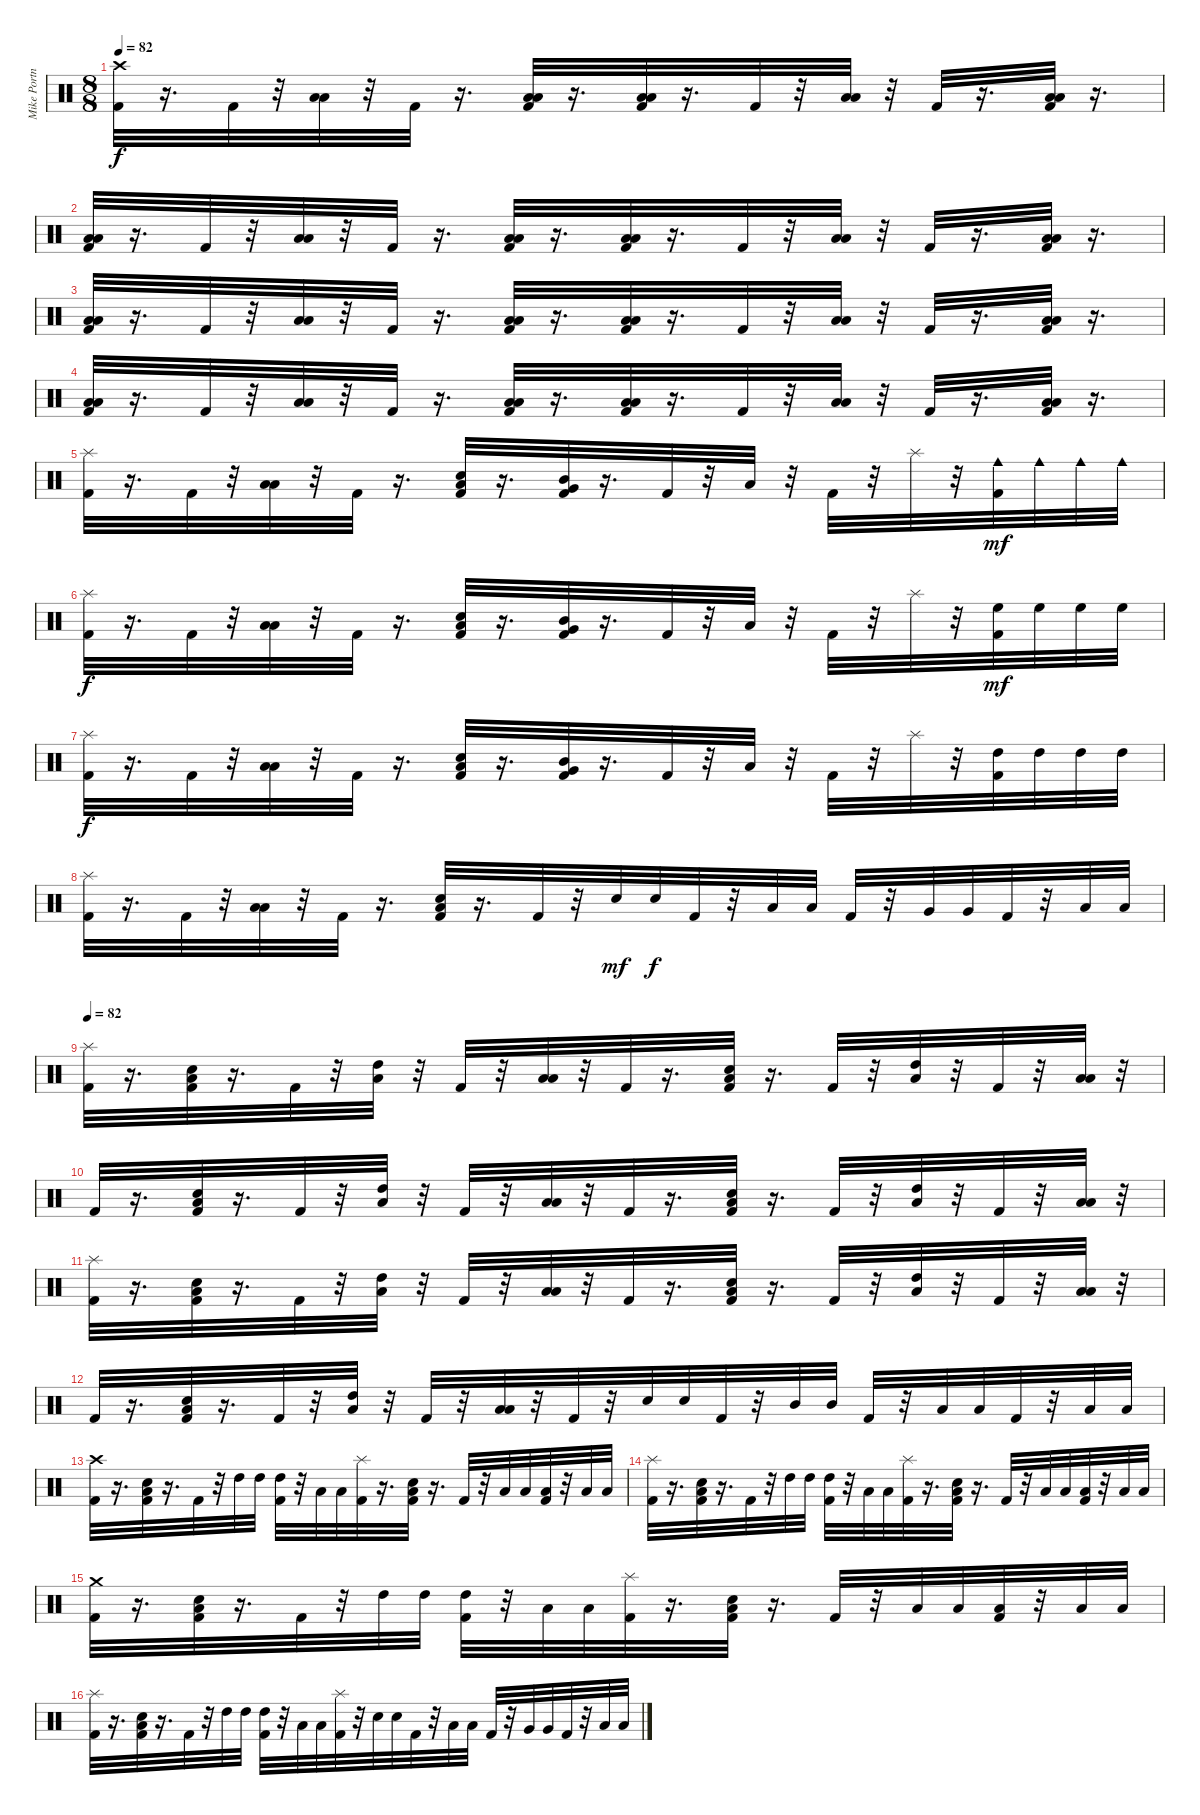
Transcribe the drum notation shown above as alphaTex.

\track ("Mike Portnoy" "Mike Portn") {instrument percussion}
\staff {score}
\articulation defaults
\ts (8 8)
\tempo 82
\clef neutral
\ks c
("Crash high (hit)" "Kick (hit) 2").32{dy f} r.16{d} "Kick (hit) 2".32 r.32 ("Low Tom (hit)" "Low Floor Tom (hit)").32 r.32 "Kick (hit) 2".32 r.16{d} ("Kick (hit) 2" "Low Floor Tom (hit)" "Low Tom (hit)").32 r.16{d} ("Low Tom (hit)" "Low Floor Tom (hit)" "Kick (hit) 2").32 r.16{d} "Kick (hit) 2".32 r.32 ("Low Floor Tom (hit)" "Low Tom (hit)").32 r.32 "Kick (hit) 2".32 r.16{d} ("Kick (hit) 2" "Low Tom (hit)" "Low Floor Tom (hit)").32 r.16{d} |
("Low Tom (hit)" "Low Floor Tom (hit)" "Kick (hit) 2").32 r.16{d} "Kick (hit) 2".32 r.32 ("Low Tom (hit)" "Low Floor Tom (hit)").32 r.32 "Kick (hit) 2".32 r.16{d} ("Kick (hit) 2" "Low Floor Tom (hit)" "Low Tom (hit)").32 r.16{d} ("Low Tom (hit)" "Low Floor Tom (hit)" "Kick (hit) 2").32 r.16{d} "Kick (hit) 2".32 r.32 ("Low Floor Tom (hit)" "Low Tom (hit)").32 r.32 "Kick (hit) 2".32 r.16{d} ("Kick (hit) 2" "Low Tom (hit)" "Low Floor Tom (hit)").32 r.16{d} |
("Low Tom (hit)" "Low Floor Tom (hit)" "Kick (hit) 2").32 r.16{d} "Kick (hit) 2".32 r.32 ("Low Tom (hit)" "Low Floor Tom (hit)").32 r.32 "Kick (hit) 2".32 r.16{d} ("Kick (hit) 2" "Low Floor Tom (hit)" "Low Tom (hit)").32 r.16{d} ("Low Tom (hit)" "Low Floor Tom (hit)" "Kick (hit) 2").32 r.16{d} "Kick (hit) 2".32 r.32 ("Low Floor Tom (hit)" "Low Tom (hit)").32 r.32 "Kick (hit) 2".32 r.16{d} ("Kick (hit) 2" "Low Tom (hit)" "Low Floor Tom (hit)").32 r.16{d} |
("Low Tom (hit)" "Low Floor Tom (hit)" "Kick (hit) 2").32 r.16{d} "Kick (hit) 2".32 r.32 ("Low Tom (hit)" "Low Floor Tom (hit)").32 r.32 "Kick (hit) 2".32 r.16{d} ("Kick (hit) 2" "Low Floor Tom (hit)" "Low Tom (hit)").32 r.16{d} ("Low Tom (hit)" "Low Floor Tom (hit)" "Kick (hit) 2").32 r.16{d} "Kick (hit) 2".32 r.32 ("Low Floor Tom (hit)" "Low Tom (hit)").32 r.32 "Kick (hit) 2".32 r.16{d} ("Kick (hit) 2" "Low Tom (hit)" "Low Floor Tom (hit)").32 r.16{d} |
("Splash (hit)" "Kick (hit) 2").32 r.16{d} "Kick (hit) 2".32 r.32 ("Low Tom (hit)" "Low Floor Tom (hit)").32 r.32 "Kick (hit) 2".32 r.16{d} ("Low Floor Tom (hit)" "Kick (hit) 2" "Snare (hit) 2").32 r.16{d} ("Mid Tom (hit)" "Very Low Tom (hit)" "Kick (hit) 2").32 r.16{d} "Kick (hit) 2".32 r.32 "Low Floor Tom (hit)".32 r.32 "Kick (hit) 2".32 r.32 "Splash (hit)".32 r.32 ("Cowbell medium (hit)" "Kick (hit) 2").32{dy mf} "Cowbell medium (hit)".32 "Cowbell medium (hit)".32 "Cowbell medium (hit)".32 |
("Splash (hit)" "Kick (hit) 2").32{dy f} r.16{d} "Kick (hit) 2".32 r.32 ("Low Tom (hit)" "Low Floor Tom (hit)").32 r.32 "Kick (hit) 2".32 r.16{d} ("Low Floor Tom (hit)" "Kick (hit) 2" "Snare (hit) 2").32 r.16{d} ("Mid Tom (hit)" "Very Low Tom (hit)" "Kick (hit) 2").32 r.16{d} "Kick (hit) 2".32 r.32 "Low Floor Tom (hit)".32 r.32 "Kick (hit) 2".32 r.32 "Splash (hit)".32 r.32 ("High Floor Tom (hit)" "Kick (hit) 2").32{dy mf} "High Floor Tom (hit)".32 "High Floor Tom (hit)".32 "High Floor Tom (hit)".32 |
("Kick (hit) 2" "Splash (hit)").32{dy f} r.16{d} "Kick (hit) 2".32 r.32 ("Low Tom (hit)" "Low Floor Tom (hit)").32 r.32 "Kick (hit) 2".32 r.16{d} ("Low Floor Tom (hit)" "Kick (hit) 2" "Snare (hit) 2").32 r.16{d} ("Mid Tom (hit)" "Very Low Tom (hit)" "Kick (hit) 2").32 r.16{d} "Kick (hit) 2".32 r.32 "Low Floor Tom (hit)".32 r.32 "Kick (hit) 2".32 r.32 "Splash (hit)".32 r.32 ("High Tom (hit)" "Kick (hit) 2").32 "High Tom (hit)".32 "High Tom (hit)".32 "High Tom (hit)".32 |
("Splash (hit)" "Kick (hit) 2").32 r.16{d} "Kick (hit) 2".32 r.32 ("Low Tom (hit)" "Low Floor Tom (hit)").32 r.32 "Kick (hit) 2".32 r.16{d} ("Low Floor Tom (hit)" "Kick (hit) 2" "Snare (hit) 2").32 r.16{d} "Kick (hit) 2".32 r.32 "Snare (hit) 2".32{dy mf} "Snare (hit) 2".32{dy f} "Kick (hit) 2".32 r.32 "Low Tom (hit)".32 "Low Tom (hit)".32 "Kick (hit) 2".32 r.32 "Very Low Tom (hit)".32 "Very Low Tom (hit)".32 "Kick (hit) 2".32 r.32 "Low Floor Tom (hit)".32 "Low Floor Tom (hit)".32 |
\tempo 82
("Kick (hit) 2" "Splash (hit)").32 r.16{d} ("Low Floor Tom (hit)" "Snare (hit) 2" "Kick (hit) 2").32 r.16{d} "Kick (hit) 2".32 r.32 ("Low Tom (hit)" "High Tom (hit)").32 r.32 "Kick (hit) 2".32 r.32 ("Low Floor Tom (hit)" "Low Tom (hit)").32 r.32 "Kick (hit) 2".32 r.16{d} ("Low Floor Tom (hit)" "Kick (hit) 2" "Snare (hit) 2").32 r.16{d} "Kick (hit) 2".32 r.32 ("Low Tom (hit)" "High Tom (hit)").32 r.32 "Kick (hit) 2".32 r.32 ("Low Tom (hit)" "Low Floor Tom (hit)").32 r.32 |
"Kick (hit) 2".32 r.16{d} ("Low Floor Tom (hit)" "Snare (hit) 2" "Kick (hit) 2").32 r.16{d} "Kick (hit) 2".32 r.32 ("Low Tom (hit)" "High Tom (hit)").32 r.32 "Kick (hit) 2".32 r.32 ("Low Floor Tom (hit)" "Low Tom (hit)").32 r.32 "Kick (hit) 2".32 r.16{d} ("Low Floor Tom (hit)" "Kick (hit) 2" "Snare (hit) 2").32 r.16{d} "Kick (hit) 2".32 r.32 ("Low Tom (hit)" "High Tom (hit)").32 r.32 "Kick (hit) 2".32 r.32 ("Low Tom (hit)" "Low Floor Tom (hit)").32 r.32 |
("Kick (hit) 2" "Splash (hit)").32 r.16{d} ("Low Floor Tom (hit)" "Snare (hit) 2" "Kick (hit) 2").32 r.16{d} "Kick (hit) 2".32 r.32 ("Low Tom (hit)" "High Tom (hit)").32 r.32 "Kick (hit) 2".32 r.32 ("Low Floor Tom (hit)" "Low Tom (hit)").32 r.32 "Kick (hit) 2".32 r.16{d} ("Low Floor Tom (hit)" "Kick (hit) 2" "Snare (hit) 2").32 r.16{d} "Kick (hit) 2".32 r.32 ("Low Tom (hit)" "High Tom (hit)").32 r.32 "Kick (hit) 2".32 r.32 ("Low Tom (hit)" "Low Floor Tom (hit)").32 r.32 |
"Kick (hit) 2".32 r.16{d} ("Low Floor Tom (hit)" "Snare (hit) 2" "Kick (hit) 2").32 r.16{d} "Kick (hit) 2".32 r.32 ("Low Tom (hit)" "High Tom (hit)").32 r.32 "Kick (hit) 2".32 r.32 ("Low Floor Tom (hit)" "Low Tom (hit)").32 r.32 "Kick (hit) 2".32 r.32 "Snare (hit) 2".32 "Snare (hit) 2".32 "Kick (hit) 2".32 r.32 "Mid Tom (hit)".32 "Mid Tom (hit)".32 "Kick (hit) 2".32 r.32 "Low Tom (hit)".32 "Low Tom (hit)".32 "Kick (hit) 2".32 r.32 "Low Floor Tom (hit)".32 "Low Floor Tom (hit)".32 |
("Kick (hit) 2" "Crash high (hit)").32 r.16{d} ("Low Floor Tom (hit)" "Snare (hit) 2" "Kick (hit) 2").32 r.16{d} "Kick (hit) 2".32 r.32 "High Tom (hit)".32 "High Tom (hit)".32 ("High Tom (hit)" "Kick (hit) 2").32 r.32 "Low Tom (hit)".32 "Low Tom (hit)".32 ("Splash (hit)" "Kick (hit) 2").32 r.16{d} ("Low Floor Tom (hit)" "Kick (hit) 2" "Snare (hit) 2").32 r.16{d} "Kick (hit) 2".32 r.32 "Low Tom (hit)".32 "Low Tom (hit)".32 ("Low Tom (hit)" "Kick (hit) 2").32 r.32 "Low Floor Tom (hit)".32 "Low Floor Tom (hit)".32 |
("Kick (hit) 2" "Splash (hit)").32 r.16{d} ("Low Floor Tom (hit)" "Snare (hit) 2" "Kick (hit) 2").32 r.16{d} "Kick (hit) 2".32 r.32 "High Tom (hit)".32 "High Tom (hit)".32 ("High Tom (hit)" "Kick (hit) 2").32 r.32 "Low Tom (hit)".32 "Low Tom (hit)".32 ("Splash (hit)" "Kick (hit) 2").32 r.16{d} ("Low Floor Tom (hit)" "Kick (hit) 2" "Snare (hit) 2").32 r.16{d} "Kick (hit) 2".32 r.32 "Low Tom (hit)".32 "Low Tom (hit)".32 ("Low Tom (hit)" "Kick (hit) 2").32 r.32 "Low Floor Tom (hit)".32 "Low Floor Tom (hit)".32 |
("Kick (hit) 2" "Crash medium (hit)").32 r.16{d} ("Low Floor Tom (hit)" "Snare (hit) 2" "Kick (hit) 2").32 r.16{d} "Kick (hit) 2".32 r.32 "High Tom (hit)".32 "High Tom (hit)".32 ("High Tom (hit)" "Kick (hit) 2").32 r.32 "Low Tom (hit)".32 "Low Tom (hit)".32 ("Splash (hit)" "Kick (hit) 2").32 r.16{d} ("Low Floor Tom (hit)" "Kick (hit) 2" "Snare (hit) 2").32 r.16{d} "Kick (hit) 2".32 r.32 "Low Tom (hit)".32 "Low Tom (hit)".32 ("Low Tom (hit)" "Kick (hit) 2").32 r.32 "Low Floor Tom (hit)".32 "Low Floor Tom (hit)".32 |
("Kick (hit) 2" "Splash (hit)").32 r.16{d} ("Low Floor Tom (hit)" "Snare (hit) 2" "Kick (hit) 2").32 r.16{d} "Kick (hit) 2".32 r.32 "High Tom (hit)".32 "High Tom (hit)".32 ("High Tom (hit)" "Kick (hit) 2").32 r.32 "Low Tom (hit)".32 "Low Tom (hit)".32 ("Splash (hit)" "Kick (hit) 2").32 r.32 "Snare (hit) 2".32 "Snare (hit) 2".32 "Kick (hit) 2".32 r.32 "Low Tom (hit)".32 "Low Tom (hit)".32 "Kick (hit) 2".32 r.32 "Very Low Tom (hit)".32 "Very Low Tom (hit)".32 "Kick (hit) 2".32 r.32 "Low Floor Tom (hit)".32 "Low Floor Tom (hit)".32
